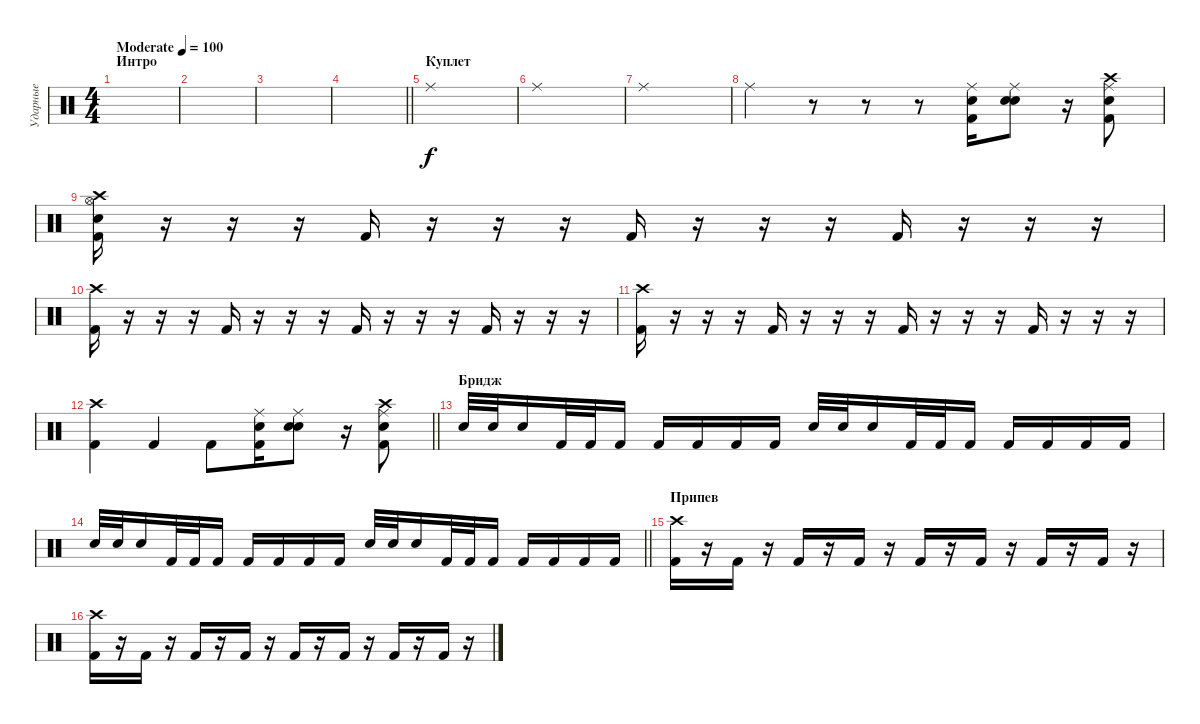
\track ("Ударные" "Ударные") {instrument percussion}
\staff {score}
\articulation defaults
\ts (4 4)
\section ("" "Интро")
\tempo (100 "Moderate")
\clef neutral
\ks c
|
|
|
\barLineRight lightlight
|
\section ("" "Куплет")
"Ride (middle)".1 |
"Ride (middle)".1 |
"Ride (middle)".1 |
"Ride (middle)".4 r.8 r.8 r.8 ("Snare (hit) 2" "Kick (hit) 2" "Ride (middle)").16 ("Snare (hit) 2" "Electric Snare (hit)" "Ride (middle)").8 r.16 ("Snare (hit) 2" "Kick (hit) 2" "Crash high (hit)" "Ride (middle)").8 |
("Snare (hit) 2" "Crash high (hit)" "Hi-Hat (open)" "Kick (hit) 2").16 r.16 r.16 r.16 "Kick (hit) 2".16 r.16 r.16 r.16 "Kick (hit) 2".16 r.16 r.16 r.16 "Kick (hit) 2".16 r.16 r.16 r.16 |
("Kick (hit) 2" "Crash high (hit)").16 r.16 r.16 r.16 "Kick (hit) 2".16 r.16 r.16 r.16 "Kick (hit) 2".16 r.16 r.16 r.16 "Kick (hit) 2".16 r.16 r.16 r.16 |
("Kick (hit) 2" "Crash high (hit)").16 r.16 r.16 r.16 "Kick (hit) 2".16 r.16 r.16 r.16 "Kick (hit) 2".16 r.16 r.16 r.16 "Kick (hit) 2".16 r.16 r.16 r.16 |
\barLineRight lightlight
("Kick (hit) 2" "Crash high (hit)").4 "Kick (hit) 2".4 "Kick (hit) 2".8 ("Snare (hit) 2" "Kick (hit) 2" "Ride (middle)").16 ("Snare (hit) 2" "Electric Snare (hit)" "Ride (middle)").8 r.16 ("Snare (hit) 2" "Kick (hit) 2" "Crash high (hit)" "Ride (middle)").8 |
\section ("" "Бридж")
"Snare (hit) 2".32 "Snare (hit) 2".32 "Snare (hit) 2".16 "Kick (hit) 2".32 "Kick (hit) 2".32 "Kick (hit) 2".16 "Kick (hit) 2".16 "Kick (hit) 2".16 "Kick (hit) 2".16 "Kick (hit) 2".16 "Snare (hit) 2".32 "Snare (hit) 2".32 "Snare (hit) 2".16 "Kick (hit) 2".32 "Kick (hit) 2".32 "Kick (hit) 2".16 "Kick (hit) 2".16 "Kick (hit) 2".16 "Kick (hit) 2".16 "Kick (hit) 2".16 |
\barLineRight lightlight "Snare (hit) 2".32 "Snare (hit) 2".32 "Snare (hit) 2".16 "Kick (hit) 2".32 "Kick (hit) 2".32 "Kick (hit) 2".16 "Kick (hit) 2".16 "Kick (hit) 2".16 "Kick (hit) 2".16 "Kick (hit) 2".16 "Snare (hit) 2".32 "Snare (hit) 2".32 "Snare (hit) 2".16 "Kick (hit) 2".32 "Kick (hit) 2".32 "Kick (hit) 2".16 "Kick (hit) 2".16 "Kick (hit) 2".16 "Kick (hit) 2".16 "Kick (hit) 2".16
|
\section ("" "Припев")
("Kick (hit) 2" "Crash high (hit)").16 r.16 "Kick (hit) 2".16 r.16 "Kick (hit) 2".16 r.16 "Kick (hit) 2".16 r.16 "Kick (hit) 2".16 r.16 "Kick (hit) 2".16 r.16 "Kick (hit) 2".16 r.16 "Kick (hit) 2".16 r.16 |
("Kick (hit) 2" "Crash high (hit)").16 r.16 "Kick (hit) 2".16 r.16 "Kick (hit) 2".16 r.16 "Kick (hit) 2".16 r.16 "Kick (hit) 2".16 r.16 "Kick (hit) 2".16 r.16 "Kick (hit) 2".16 r.16 "Kick (hit) 2".16 r.16
